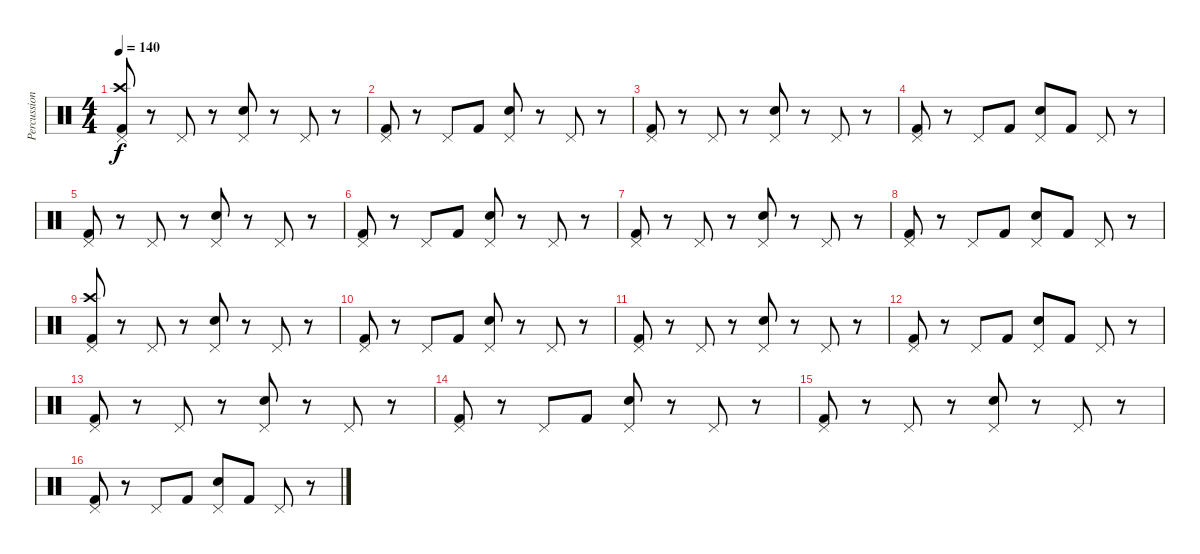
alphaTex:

\track ("Percussion" "Percussion") {instrument percussion}
\staff {score}
\articulation defaults
\ts (4 4)
\tempo 140
\clef neutral
\ks c
("Pedal Hi-Hat (hit)" "Crash high (hit)" "Kick (hit) 2").8{dy f} r.8 "Pedal Hi-Hat (hit)".8 r.8 ("Pedal Hi-Hat (hit)" "Electric Snare (hit)").8 r.8 "Pedal Hi-Hat (hit)".8 r.8 |
("Pedal Hi-Hat (hit)" "Kick (hit) 2").8 r.8 "Pedal Hi-Hat (hit)".8 "Kick (hit) 2".8 ("Pedal Hi-Hat (hit)" "Electric Snare (hit)").8 r.8 "Pedal Hi-Hat (hit)".8 r.8 |
("Pedal Hi-Hat (hit)" "Kick (hit) 2").8 r.8 "Pedal Hi-Hat (hit)".8 r.8 ("Pedal Hi-Hat (hit)" "Electric Snare (hit)").8 r.8 "Pedal Hi-Hat (hit)".8 r.8 |
("Pedal Hi-Hat (hit)" "Kick (hit) 2").8 r.8 "Pedal Hi-Hat (hit)".8 "Kick (hit) 2".8 ("Pedal Hi-Hat (hit)" "Electric Snare (hit)").8 "Kick (hit) 2".8 "Pedal Hi-Hat (hit)".8 r.8 |
("Pedal Hi-Hat (hit)" "Kick (hit) 2").8 r.8 "Pedal Hi-Hat (hit)".8 r.8 ("Pedal Hi-Hat (hit)" "Electric Snare (hit)").8 r.8 "Pedal Hi-Hat (hit)".8 r.8 |
("Pedal Hi-Hat (hit)" "Kick (hit) 2").8 r.8 "Pedal Hi-Hat (hit)".8 "Kick (hit) 2".8 ("Pedal Hi-Hat (hit)" "Electric Snare (hit)").8 r.8 "Pedal Hi-Hat (hit)".8 r.8 |
("Pedal Hi-Hat (hit)" "Kick (hit) 2").8 r.8 "Pedal Hi-Hat (hit)".8 r.8 ("Pedal Hi-Hat (hit)" "Electric Snare (hit)").8 r.8 "Pedal Hi-Hat (hit)".8 r.8 |
("Pedal Hi-Hat (hit)" "Kick (hit) 2").8 r.8 "Pedal Hi-Hat (hit)".8 "Kick (hit) 2".8 ("Pedal Hi-Hat (hit)" "Electric Snare (hit)").8 "Kick (hit) 2".8 "Pedal Hi-Hat (hit)".8 r.8 |
("Pedal Hi-Hat (hit)" "Crash high (hit)" "Kick (hit) 2").8 r.8 "Pedal Hi-Hat (hit)".8 r.8 ("Pedal Hi-Hat (hit)" "Electric Snare (hit)").8 r.8 "Pedal Hi-Hat (hit)".8 r.8 |
("Pedal Hi-Hat (hit)" "Kick (hit) 2").8 r.8 "Pedal Hi-Hat (hit)".8 "Kick (hit) 2".8 ("Pedal Hi-Hat (hit)" "Electric Snare (hit)").8 r.8 "Pedal Hi-Hat (hit)".8 r.8 |
("Pedal Hi-Hat (hit)" "Kick (hit) 2").8 r.8 "Pedal Hi-Hat (hit)".8 r.8 ("Pedal Hi-Hat (hit)" "Electric Snare (hit)").8 r.8 "Pedal Hi-Hat (hit)".8 r.8 |
("Pedal Hi-Hat (hit)" "Kick (hit) 2").8 r.8 "Pedal Hi-Hat (hit)".8 "Kick (hit) 2".8 ("Pedal Hi-Hat (hit)" "Electric Snare (hit)").8 "Kick (hit) 2".8 "Pedal Hi-Hat (hit)".8 r.8 |
("Pedal Hi-Hat (hit)" "Kick (hit) 2").8 r.8 "Pedal Hi-Hat (hit)".8 r.8 ("Pedal Hi-Hat (hit)" "Electric Snare (hit)").8 r.8 "Pedal Hi-Hat (hit)".8 r.8 |
("Pedal Hi-Hat (hit)" "Kick (hit) 2").8 r.8 "Pedal Hi-Hat (hit)".8 "Kick (hit) 2".8 ("Pedal Hi-Hat (hit)" "Electric Snare (hit)").8 r.8 "Pedal Hi-Hat (hit)".8 r.8 |
("Pedal Hi-Hat (hit)" "Kick (hit) 2").8 r.8 "Pedal Hi-Hat (hit)".8 r.8 ("Pedal Hi-Hat (hit)" "Electric Snare (hit)").8 r.8 "Pedal Hi-Hat (hit)".8 r.8 |
("Pedal Hi-Hat (hit)" "Kick (hit) 2").8 r.8 "Pedal Hi-Hat (hit)".8 "Kick (hit) 2".8 ("Pedal Hi-Hat (hit)" "Electric Snare (hit)").8 "Kick (hit) 2".8 "Pedal Hi-Hat (hit)".8 r.8
